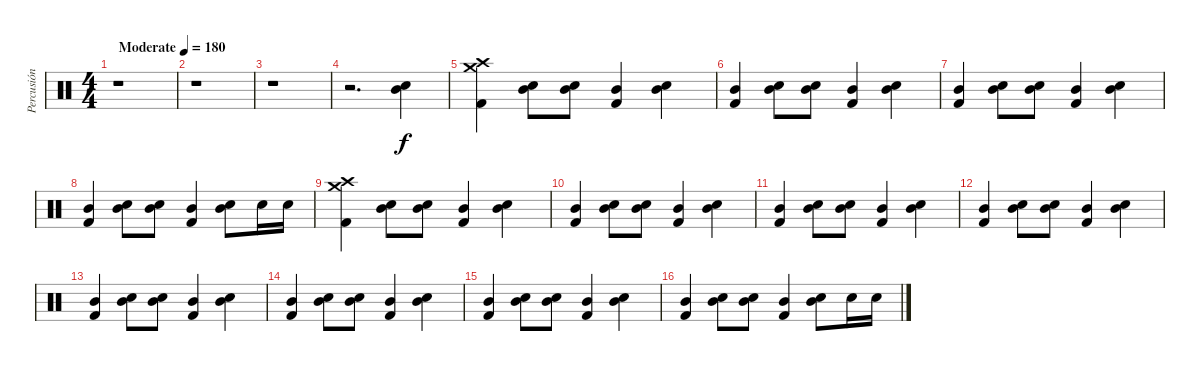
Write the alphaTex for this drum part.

\track ("Percusión" "Percusión") {instrument percussion}
\staff {score}
\articulation defaults
\ts (4 4)
\tempo (180 "Moderate")
\clef neutral
\ks c
r.1{dy f} |
r.1 |
r.1 |
r.2{d} ("Mid Tom (hit)" "Snare (hit) 2").4 |
("Crash medium (hit)" "Crash high (hit)" "Kick (hit) 2").4 ("Mid Tom (hit)" "Snare (hit) 2").8 ("Mid Tom (hit)" "Snare (hit) 2").8 ("Mid Tom (hit)" "Kick (hit) 2").4 ("Mid Tom (hit)" "Snare (hit) 2").4 |
("Mid Tom (hit)" "Kick (hit) 2").4 ("Mid Tom (hit)" "Snare (hit) 2").8 ("Mid Tom (hit)" "Snare (hit) 2").8 ("Mid Tom (hit)" "Kick (hit) 2").4 ("Mid Tom (hit)" "Snare (hit) 2").4 |
("Mid Tom (hit)" "Kick (hit) 2").4 ("Mid Tom (hit)" "Snare (hit) 2").8 ("Mid Tom (hit)" "Snare (hit) 2").8 ("Mid Tom (hit)" "Kick (hit) 2").4 ("Mid Tom (hit)" "Snare (hit) 2").4 |
("Mid Tom (hit)" "Kick (hit) 2").4 ("Mid Tom (hit)" "Snare (hit) 2").8 ("Mid Tom (hit)" "Snare (hit) 2").8 ("Mid Tom (hit)" "Kick (hit) 2").4 ("Mid Tom (hit)" "Snare (hit) 2").8 "Snare (hit) 2".16 "Snare (hit) 2".16 |
("Crash medium (hit)" "Crash high (hit)" "Kick (hit) 2").4 ("Mid Tom (hit)" "Snare (hit) 2").8 ("Mid Tom (hit)" "Snare (hit) 2").8 ("Mid Tom (hit)" "Kick (hit) 2").4 ("Mid Tom (hit)" "Snare (hit) 2").4 |
("Mid Tom (hit)" "Kick (hit) 2").4 ("Mid Tom (hit)" "Snare (hit) 2").8 ("Mid Tom (hit)" "Snare (hit) 2").8 ("Mid Tom (hit)" "Kick (hit) 2").4 ("Mid Tom (hit)" "Snare (hit) 2").4 |
("Mid Tom (hit)" "Kick (hit) 2").4 ("Mid Tom (hit)" "Snare (hit) 2").8 ("Mid Tom (hit)" "Snare (hit) 2").8 ("Mid Tom (hit)" "Kick (hit) 2").4 ("Mid Tom (hit)" "Snare (hit) 2").4 |
("Mid Tom (hit)" "Kick (hit) 2").4 ("Mid Tom (hit)" "Snare (hit) 2").8 ("Mid Tom (hit)" "Snare (hit) 2").8 ("Mid Tom (hit)" "Kick (hit) 2").4 ("Mid Tom (hit)" "Snare (hit) 2").4 |
("Mid Tom (hit)" "Kick (hit) 2").4 ("Mid Tom (hit)" "Snare (hit) 2").8 ("Mid Tom (hit)" "Snare (hit) 2").8 ("Mid Tom (hit)" "Kick (hit) 2").4 ("Mid Tom (hit)" "Snare (hit) 2").4 |
("Mid Tom (hit)" "Kick (hit) 2").4 ("Mid Tom (hit)" "Snare (hit) 2").8 ("Mid Tom (hit)" "Snare (hit) 2").8 ("Mid Tom (hit)" "Kick (hit) 2").4 ("Mid Tom (hit)" "Snare (hit) 2").4 |
("Mid Tom (hit)" "Kick (hit) 2").4 ("Mid Tom (hit)" "Snare (hit) 2").8 ("Mid Tom (hit)" "Snare (hit) 2").8 ("Mid Tom (hit)" "Kick (hit) 2").4 ("Mid Tom (hit)" "Snare (hit) 2").4 |
("Mid Tom (hit)" "Kick (hit) 2").4 ("Mid Tom (hit)" "Snare (hit) 2").8 ("Mid Tom (hit)" "Snare (hit) 2").8 ("Mid Tom (hit)" "Kick (hit) 2").4 ("Mid Tom (hit)" "Snare (hit) 2").8 "Snare (hit) 2".16 "Snare (hit) 2".16
